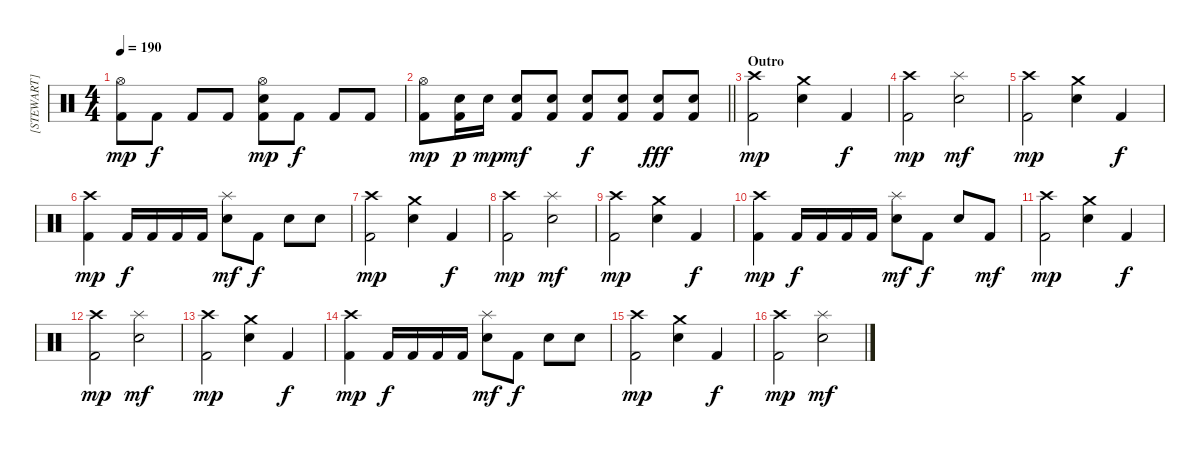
\track ("[STEWART]" "[STEWART]") {instrument percussion}
\staff {score}
\articulation defaults
\ts (4 4)
\tempo 190
\clef neutral
\ks c
("Hi-Hat (open)" "Kick (hit) 2").8{dy mp} "Kick (hit) 2".8{dy f} "Kick (hit) 2".8 "Kick (hit) 2".8 ("Hi-Hat (open)" "Electric Snare (hit)" "Kick (hit) 2").8{dy mp} "Kick (hit) 2".8{dy f} "Kick (hit) 2".8 "Kick (hit) 2".8 |
\barLineRight lightlight
("Hi-Hat (open)" "Kick (hit) 2").8{dy mp} ("Electric Snare (hit)" "Kick (hit) 2").16{dy p} "Electric Snare (hit)".16{dy mp} ("Electric Snare (hit)" "Kick (hit) 2").8{dy mf} ("Electric Snare (hit)" "Kick (hit) 2").8 ("Electric Snare (hit)" "Kick (hit) 2").8{dy f} ("Electric Snare (hit)" "Kick (hit) 2").8 ("Electric Snare (hit)" "Kick (hit) 2").8{dy fff} ("Electric Snare (hit)" "Kick (hit) 2").8 |
\section ("" "Outro")
("Crash high (hit)" "Kick (hit) 2").2{dy mp} ("Crash medium (hit)" "Electric Snare (hit)").4 "Kick (hit) 2".4{dy f} |
("Crash high (hit)" "Kick (hit) 2").2{dy mp} ("Splash (hit)" "Electric Snare (hit)").2{dy mf} |
("Crash high (hit)" "Kick (hit) 2").2{dy mp} ("Crash medium (hit)" "Electric Snare (hit)").4 "Kick (hit) 2".4{dy f} |
("Crash high (hit)" "Kick (hit) 2").4{dy mp} "Kick (hit) 2".16{dy f} "Kick (hit) 2".16 "Kick (hit) 2".16 "Kick (hit) 2".16 ("Splash (hit)" "Electric Snare (hit)").8{dy mf} "Kick (hit) 2".8{dy f} "Electric Snare (hit)".8 "Electric Snare (hit)".8 |
("Crash high (hit)" "Kick (hit) 2").2{dy mp} ("Crash medium (hit)" "Electric Snare (hit)").4 "Kick (hit) 2".4{dy f} |
("Crash high (hit)" "Kick (hit) 2").2{dy mp} ("Splash (hit)" "Electric Snare (hit)").2{dy mf} |
("Crash high (hit)" "Kick (hit) 2").2{dy mp} ("Crash medium (hit)" "Electric Snare (hit)").4 "Kick (hit) 2".4{dy f} |
("Crash high (hit)" "Kick (hit) 2").4{dy mp} "Kick (hit) 2".16{dy f} "Kick (hit) 2".16 "Kick (hit) 2".16 "Kick (hit) 2".16 ("Splash (hit)" "Electric Snare (hit)").8{dy mf} "Kick (hit) 2".8{dy f} "Electric Snare (hit)".8 "Kick (hit) 2".8{dy mf} |
("Crash high (hit)" "Kick (hit) 2").2{dy mp} ("Crash medium (hit)" "Electric Snare (hit)").4 "Kick (hit) 2".4{dy f} |
("Crash high (hit)" "Kick (hit) 2").2{dy mp} ("Splash (hit)" "Electric Snare (hit)").2{dy mf} |
("Crash high (hit)" "Kick (hit) 2").2{dy mp} ("Crash medium (hit)" "Electric Snare (hit)").4 "Kick (hit) 2".4{dy f} |
("Crash high (hit)" "Kick (hit) 2").4{dy mp} "Kick (hit) 2".16{dy f} "Kick (hit) 2".16 "Kick (hit) 2".16 "Kick (hit) 2".16 ("Splash (hit)" "Electric Snare (hit)").8{dy mf} "Kick (hit) 2".8{dy f} "Electric Snare (hit)".8 "Electric Snare (hit)".8 |
("Crash high (hit)" "Kick (hit) 2").2{dy mp} ("Crash medium (hit)" "Electric Snare (hit)").4 "Kick (hit) 2".4{dy f} |
("Crash high (hit)" "Kick (hit) 2").2{dy mp} ("Splash (hit)" "Electric Snare (hit)").2{dy mf}
